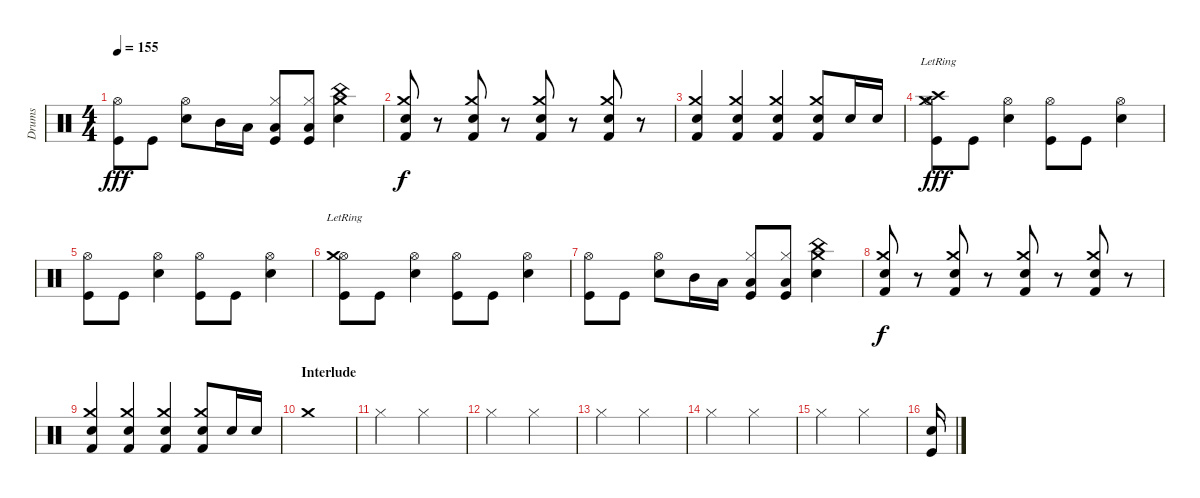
\track ("Drums" "Drums") {instrument percussion}
\staff {score}
\articulation defaults
\ts (4 4)
\tempo 155
\clef neutral
\ks c
("Hi-Hat (open)" "Kick (hit)").8{dy fff} "Kick (hit)".8 ("Hi-Hat (open)" "Snare (hit) 2").8 "Mid Tom (hit)".16 "Low Tom (hit)".16 ("Hi-Hat (closed)" "Low Floor Tom (hit)" "Kick (hit)").8 ("Hi-Hat (closed)" "Low Floor Tom (hit)" "Kick (hit)").8 ("Crash medium (hit)" "China (hit)" "Snare (hit) 2").4 |
("Kick (hit) 2" "Crash medium (hit)" "Snare (hit) 2").8{dy f} r.8 ("Kick (hit) 2" "Crash medium (hit)" "Snare (hit) 2").8 r.8 ("Kick (hit) 2" "Crash medium (hit)" "Snare (hit) 2").8 r.8 ("Kick (hit) 2" "Crash medium (hit)" "Snare (hit) 2").8 r.8 |
("Crash medium (hit)" "Snare (hit) 2" "Kick (hit) 2").4 ("Crash medium (hit)" "Snare (hit) 2" "Kick (hit) 2").4 ("Crash medium (hit)" "Snare (hit) 2" "Kick (hit) 2").4 ("Crash medium (hit)" "Snare (hit) 2" "Kick (hit) 2").8 "Snare (hit) 2".16 "Snare (hit) 2".16 |
("Crash high (hit)"{lr} "Hi-Hat (open)" "Crash medium (hit)"{lr} "Kick (hit)").8{dy fff} "Kick (hit)".8 ("Hi-Hat (open)" "Snare (hit) 2").4 ("Hi-Hat (open)" "Kick (hit)").8 "Kick (hit)".8 ("Hi-Hat (open)" "Snare (hit) 2").4 |
("Hi-Hat (open)" "Kick (hit)").8 "Kick (hit)".8 ("Hi-Hat (open)" "Snare (hit) 2").4 ("Hi-Hat (open)" "Kick (hit)").8 "Kick (hit)".8 ("Hi-Hat (open)" "Snare (hit) 2").4 |
("Hi-Hat (open)" "Crash medium (hit)"{lr} "Kick (hit)").8 "Kick (hit)".8 ("Hi-Hat (open)" "Snare (hit) 2").4 ("Hi-Hat (open)" "Kick (hit)").8 "Kick (hit)".8 ("Hi-Hat (open)" "Snare (hit) 2").4 |
("Hi-Hat (open)" "Kick (hit)").8 "Kick (hit)".8 ("Hi-Hat (open)" "Snare (hit) 2").8 "Mid Tom (hit)".16 "Low Tom (hit)".16 ("Hi-Hat (closed)" "Low Floor Tom (hit)" "Kick (hit)").8 ("Hi-Hat (closed)" "Low Floor Tom (hit)" "Kick (hit)").8 ("Crash medium (hit)" "China (hit)" "Snare (hit) 2").4 |
("Kick (hit) 2" "Crash medium (hit)" "Snare (hit) 2").8{dy f} r.8 ("Kick (hit) 2" "Crash medium (hit)" "Snare (hit) 2").8 r.8 ("Kick (hit) 2" "Crash medium (hit)" "Snare (hit) 2").8 r.8 ("Kick (hit) 2" "Crash medium (hit)" "Snare (hit) 2").8 r.8 |
("Crash medium (hit)" "Snare (hit) 2" "Kick (hit) 2").4 ("Crash medium (hit)" "Snare (hit) 2" "Kick (hit) 2").4 ("Crash medium (hit)" "Snare (hit) 2" "Kick (hit) 2").4 ("Crash medium (hit)" "Snare (hit) 2" "Kick (hit) 2").8 "Snare (hit) 2".16 "Snare (hit) 2".16 |
\section ("" "Interlude")
"Crash medium (hit)".1 |
"Hi-Hat (closed)".2 "Hi-Hat (closed)".2 |
"Hi-Hat (closed)".2 "Hi-Hat (closed)".2 |
"Hi-Hat (closed)".2 "Hi-Hat (closed)".2 |
"Hi-Hat (closed)".2 "Hi-Hat (closed)".2 |
"Hi-Hat (closed)".2 "Hi-Hat (closed)".2 |
("Kick (hit)" "Snare (hit) 2").16
